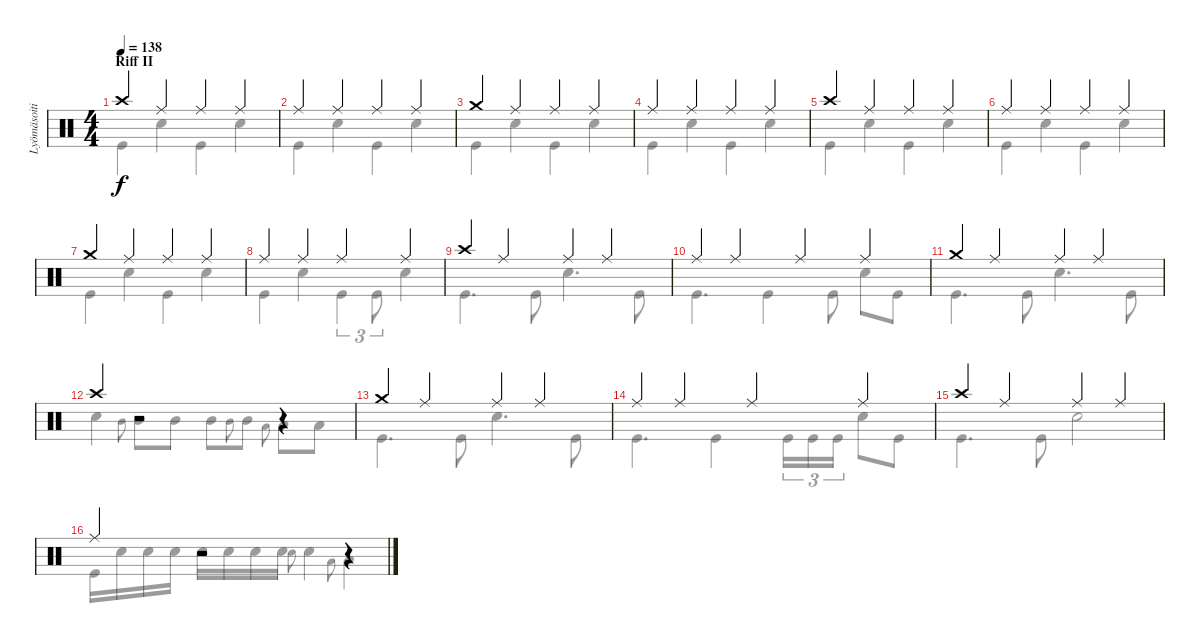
\track ("Lyömäsoitin" "Lyömäsoiti") {instrument percussion}
\staff {score}
\articulation defaults
\voice
\ts (4 4)
\section ("" "Riff II")
\tempo 138
\clef neutral
\ks c "Crash high (hit)".4{dy f} "Ride (middle)".4 "Ride (middle)".4 "Ride (middle)".4
|
"Ride (middle)".4 "Ride (middle)".4 "Ride (middle)".4 "Ride (middle)".4 |
"Crash medium (hit)".4 "Ride (middle)".4 "Ride (middle)".4 "Ride (middle)".4 |
"Ride (middle)".4 "Ride (middle)".4 "Ride (middle)".4 "Ride (middle)".4 |
"Crash high (hit)".4 "Ride (middle)".4 "Ride (middle)".4 "Ride (middle)".4 |
"Ride (middle)".4 "Ride (middle)".4 "Ride (middle)".4 "Ride (middle)".4 |
"Crash medium (hit)".4 "Ride (middle)".4 "Ride (middle)".4 "Ride (middle)".4 |
"Ride (middle)".4 "Ride (middle)".4 "Ride (middle)".4 "Ride (middle)".4 |
"Crash high (hit)".4 "Ride (middle)".4 "Ride (middle)".4 "Ride (middle)".4 |
"Ride (middle)".4 "Ride (middle)".4 "Ride (middle)".4 "Ride (middle)".4 |
"Crash medium (hit)".4 "Ride (middle)".4 "Ride (middle)".4 "Ride (middle)".4 |
"Crash high (hit)".4 r.2 r.4 |
"Crash medium (hit)".4 "Ride (middle)".4 "Ride (middle)".4 "Ride (middle)".4 |
"Ride (middle)".4 "Ride (middle)".4 "Ride (middle)".4 "Ride (middle)".4 |
"Crash high (hit)".4 "Ride (middle)".4 "Ride (middle)".4 "Ride (middle)".4 |
"Ride (middle)".4 r.2 r.4
\voice
\clef neutral
\ottava regular
\simile none
\ks c "Kick (hit)".4{dy f} "Snare (hit) 2".4 "Kick (hit)".4 "Snare (hit) 2".4
|
"Kick (hit)".4 "Snare (hit) 2".4 "Kick (hit)".4 "Snare (hit) 2".4 |
"Kick (hit)".4 "Snare (hit) 2".4 "Kick (hit)".4 "Snare (hit) 2".4 |
"Kick (hit)".4 "Snare (hit) 2".4 "Kick (hit)".4 "Snare (hit) 2".4 |
"Kick (hit)".4 "Snare (hit) 2".4 "Kick (hit)".4 "Snare (hit) 2".4 |
"Kick (hit)".4 "Snare (hit) 2".4 "Kick (hit)".4 "Snare (hit) 2".4 |
"Kick (hit)".4 "Snare (hit) 2".4 "Kick (hit)".4 "Snare (hit) 2".4 |
"Kick (hit)".4 "Snare (hit) 2".4 "Kick (hit)".4{tu (3 2)} "Kick (hit)".8{tu (3 2)} "Snare (hit) 2".4 |
"Kick (hit)".4{d} "Kick (hit)".8 "Snare (hit) 2".4{d} "Kick (hit)".8 |
"Kick (hit)".4{d} "Kick (hit)".4 "Kick (hit)".8 "Snare (hit) 2".8 "Kick (hit)".8 |
"Kick (hit)".4{d} "Kick (hit)".8 "Snare (hit) 2".4{d} "Kick (hit)".8 |
"Snare (hit) 2".4 "Mid Tom (hit)"{h}.8{gr onbeat} "Mid Tom (hit)".8 "Mid Tom (hit)".8 "Mid Tom (hit)".8 "Mid Tom (hit)"{h}.8{gr onbeat} "Mid Tom (hit)".8 "Low Tom (hit)"{h}.8{gr onbeat} "Low Tom (hit)".8 "Low Tom (hit)".8 |
"Kick (hit)".4{d} "Kick (hit)".8 "Snare (hit) 2".4{d} "Kick (hit)".8 |
"Kick (hit)".4{d} "Kick (hit)".4 "Kick (hit)".16{tu (3 2)} "Kick (hit)".16{tu (3 2)} "Kick (hit)".16{tu (3 2)} "Snare (hit) 2".8 "Kick (hit)".8 |
"Kick (hit)".4{d} "Kick (hit)".8 "Snare (hit) 2".2 |
"Kick (hit)".16 "Snare (hit) 2".16 "Snare (hit) 2".16 "Snare (hit) 2".16 "Snare (hit) 2".16 "Snare (hit) 2".16 "Snare (hit) 2".16 "Snare (hit) 2".16 "Snare (hit) 2"{h}.8{gr onbeat} "Snare (hit) 2".4 "Low Tom (hit)"{h}.8{gr onbeat} "Low Tom (hit)".4
